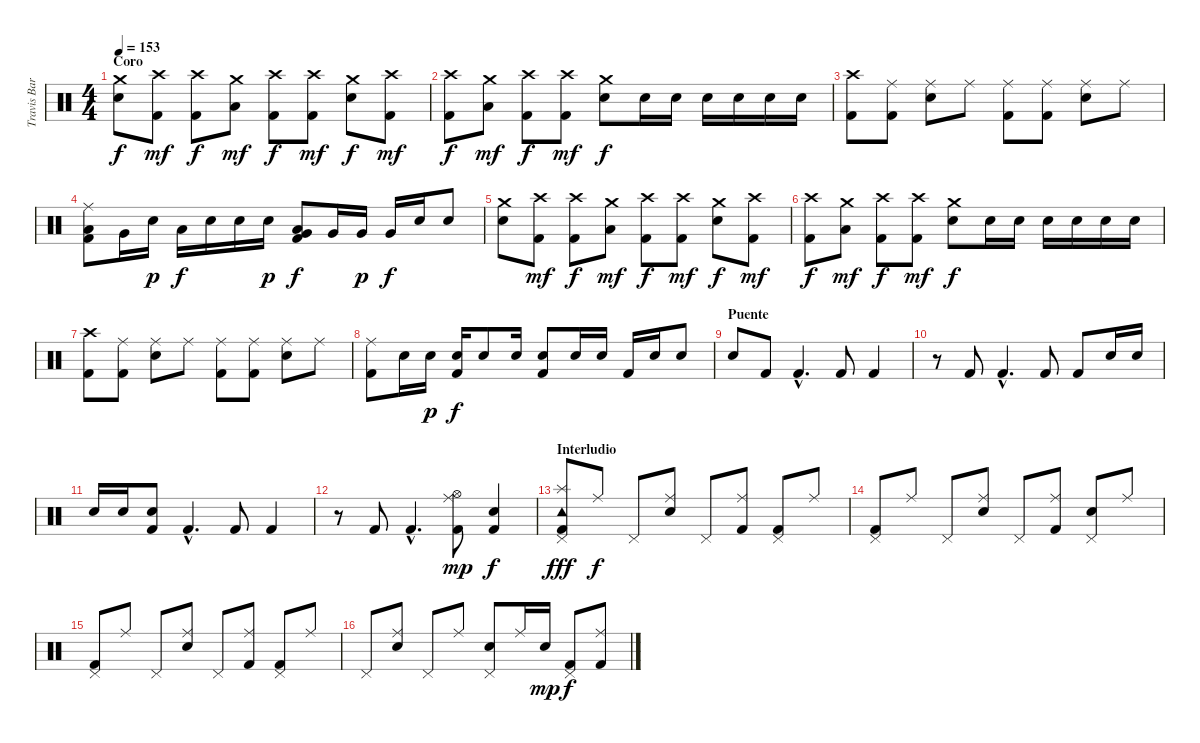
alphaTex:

\track ("Travis Barker" "Travis Bar") {instrument percussion}
\staff {score}
\articulation defaults
\ts (4 4)
\section ("" "Coro")
\tempo 153
\clef neutral
\ks c
("Crash medium (hit)" "Electric Snare (hit)").8{dy f} ("Crash high (hit)" "Kick (hit) 2").8{dy mf} ("Crash high (hit)" "Kick (hit) 2").8{dy f} ("Crash medium (hit)" "Low Tom (hit)").8{dy mf} ("Crash high (hit)" "Kick (hit) 2").8{dy f} ("Crash high (hit)" "Kick (hit) 2").8{dy mf} ("Crash medium (hit)" "Electric Snare (hit)").8{dy f} ("Crash high (hit)" "Kick (hit) 2").8{dy mf} |
("Crash high (hit)" "Kick (hit) 2").8{dy f} ("Crash medium (hit)" "Low Tom (hit)").8{dy mf} ("Crash high (hit)" "Kick (hit) 2").8{dy f} ("Crash high (hit)" "Kick (hit) 2").8{dy mf} ("Crash medium (hit)" "Electric Snare (hit)").8{dy f} "Electric Snare (hit)".16 "Electric Snare (hit)".16 "Electric Snare (hit)".16 "Electric Snare (hit)".16 "Electric Snare (hit)".16 "Electric Snare (hit)".16 |
("Crash high (hit)" "Kick (hit) 2").8 ("Ride (middle)" "Kick (hit) 2").8 ("Ride (middle)" "Electric Snare (hit)").8 "Ride (middle)".8 ("Ride (middle)" "Kick (hit) 2").8 ("Ride (middle)" "Kick (hit) 2").8 ("Ride (middle)" "Electric Snare (hit)").8 "Ride (middle)".8 |
("Ride (middle)" "Low Tom (hit)" "Kick (hit) 2").8 "Very Low Tom (hit)".16 "Electric Snare (hit)".16{dy p} "Low Tom (hit)".16{dy f} "Electric Snare (hit)".16 "Electric Snare (hit)".16 "Electric Snare (hit)".16{dy p} ("Low Tom (hit)" "Very Low Tom (hit)" "Kick (hit) 2").8{dy f} "Very Low Tom (hit)".16 "Very Low Tom (hit)".16{dy p} "Very Low Tom (hit)".16{dy f} "Electric Snare (hit)".16 "Electric Snare (hit)".8 |
("Crash medium (hit)" "Electric Snare (hit)").8 ("Crash high (hit)" "Kick (hit) 2").8{dy mf} ("Crash high (hit)" "Kick (hit) 2").8{dy f} ("Crash medium (hit)" "Low Tom (hit)").8{dy mf} ("Crash high (hit)" "Kick (hit) 2").8{dy f} ("Crash high (hit)" "Kick (hit) 2").8{dy mf} ("Crash medium (hit)" "Electric Snare (hit)").8{dy f} ("Crash high (hit)" "Kick (hit) 2").8{dy mf} |
("Crash high (hit)" "Kick (hit) 2").8{dy f} ("Crash medium (hit)" "Low Tom (hit)").8{dy mf} ("Crash high (hit)" "Kick (hit) 2").8{dy f} ("Crash high (hit)" "Kick (hit) 2").8{dy mf} ("Crash medium (hit)" "Electric Snare (hit)").8{dy f} "Electric Snare (hit)".16 "Electric Snare (hit)".16 "Electric Snare (hit)".16 "Electric Snare (hit)".16 "Electric Snare (hit)".16 "Electric Snare (hit)".16 |
("Crash high (hit)" "Kick (hit) 2").8 ("Ride (middle)" "Kick (hit) 2").8 ("Ride (middle)" "Electric Snare (hit)").8 "Ride (middle)".8 ("Ride (middle)" "Kick (hit) 2").8 ("Ride (middle)" "Kick (hit) 2").8 ("Ride (middle)" "Electric Snare (hit)").8 "Ride (middle)".8 |
("Ride (middle)" "Kick (hit) 2").8 "Electric Snare (hit)".16 "Electric Snare (hit)".16{dy p} ("Electric Snare (hit)" "Kick (hit) 2").16{dy f} "Electric Snare (hit)".8 "Electric Snare (hit)".16 ("Electric Snare (hit)" "Kick (hit) 2").8 "Electric Snare (hit)".16 "Electric Snare (hit)".16 "Kick (hit) 2".16 "Electric Snare (hit)".16 "Electric Snare (hit)".8 |
\section ("" "Puente")
"Electric Snare (hit)".8 "Kick (hit) 2".8 "Kick (hit) 2"{hac}.4{d} "Kick (hit) 2".8 "Kick (hit) 2".4 |
r.8 "Kick (hit) 2".8 "Kick (hit) 2"{hac}.4{d} "Kick (hit) 2".8 "Kick (hit) 2".8 "Electric Snare (hit)".16 "Electric Snare (hit)".16 |
"Electric Snare (hit)".16 "Electric Snare (hit)".16 ("Electric Snare (hit)" "Kick (hit) 2").8 "Kick (hit) 2"{hac}.4{d} "Kick (hit) 2".8 "Kick (hit) 2".4 |
r.8 "Kick (hit) 2".8 "Kick (hit) 2"{hac}.4{d} ("Ride (middle)" "Hi-Hat (open)" "Kick (hit) 2").8{dy mp} ("Electric Snare (hit)" "Kick (hit) 2").4{dy f} |
\section ("" "Interludio")
("Splash (hit)" "Tambourine (hit)" "Kick (hit) 2" "Pedal Hi-Hat (hit)").8{dy fff} "Ride (middle)".8{dy f} "Pedal Hi-Hat (hit)".8 ("Ride (middle)" "Electric Snare (hit)").8 "Pedal Hi-Hat (hit)".8 ("Ride (middle)" "Kick (hit) 2").8 ("Kick (hit) 2" "Pedal Hi-Hat (hit)").8 "Ride (middle)".8 |
("Kick (hit) 2" "Pedal Hi-Hat (hit)").8 "Ride (middle)".8 "Pedal Hi-Hat (hit)".8 ("Ride (middle)" "Electric Snare (hit)").8 "Pedal Hi-Hat (hit)".8 ("Ride (middle)" "Kick (hit) 2").8 ("Electric Snare (hit)" "Pedal Hi-Hat (hit)").8 "Ride (middle)".8 |
("Kick (hit) 2" "Pedal Hi-Hat (hit)").8 "Ride (middle)".8 "Pedal Hi-Hat (hit)".8 ("Ride (middle)" "Electric Snare (hit)").8 "Pedal Hi-Hat (hit)".8 ("Ride (middle)" "Kick (hit) 2").8 ("Kick (hit) 2" "Pedal Hi-Hat (hit)").8 "Ride (middle)".8 |
"Pedal Hi-Hat (hit)".8 ("Ride (middle)" "Electric Snare (hit)").8 "Pedal Hi-Hat (hit)".8 "Ride (middle)".8 ("Electric Snare (hit)" "Pedal Hi-Hat (hit)").8 "Ride (middle)".16 "Electric Snare (hit)".16{dy mp} ("Kick (hit) 2" "Pedal Hi-Hat (hit)").8{dy f} ("Ride (middle)" "Kick (hit) 2").8
